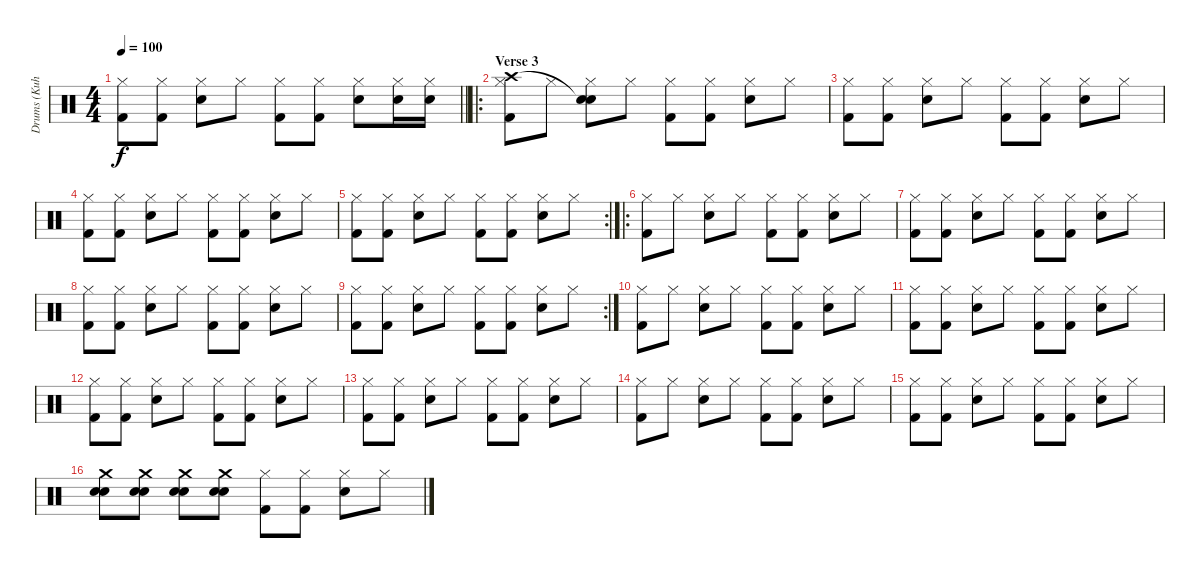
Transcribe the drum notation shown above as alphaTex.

\track ("Drums (Kuhara)" "Drums (Kuh") {instrument percussion}
\staff {score}
\articulation defaults
\ts (4 4)
\tempo 100
\clef neutral
\barLineRight lightlight
\ks c
("Hi-Hat (closed)" "Kick (hit) 2").8{dy f} ("Hi-Hat (closed)" "Kick (hit) 2").8 ("Hi-Hat (closed)" "Electric Snare (hit)").8 "Hi-Hat (closed)".8 ("Hi-Hat (closed)" "Kick (hit) 2").8 ("Hi-Hat (closed)" "Kick (hit) 2").8 ("Hi-Hat (closed)" "Electric Snare (hit)").8 ("Hi-Hat (closed)" "Electric Snare (hit)").16 ("Hi-Hat (closed)" "Electric Snare (hit)").16 |
\ro
\section ("" "Verse 3")
("Hi-Hat (closed)" "Crash high (hit)" "Kick (hit) 2").8{volume 12} "Hi-Hat (closed)".8 ("Hi-Hat (closed)" "Snare (hit)"{t} "Electric Snare (hit)").8 "Hi-Hat (closed)".8 ("Hi-Hat (closed)" "Kick (hit) 2").8 ("Hi-Hat (closed)" "Kick (hit) 2").8 ("Hi-Hat (closed)" "Electric Snare (hit)").8 "Hi-Hat (closed)".8 |
("Hi-Hat (closed)" "Kick (hit) 2").8 ("Hi-Hat (closed)" "Kick (hit) 2").8 ("Hi-Hat (closed)" "Electric Snare (hit)").8 "Hi-Hat (closed)".8 ("Hi-Hat (closed)" "Kick (hit) 2").8 ("Hi-Hat (closed)" "Kick (hit) 2").8 ("Hi-Hat (closed)" "Electric Snare (hit)").8 "Hi-Hat (closed)".8 |
("Hi-Hat (closed)" "Kick (hit) 2").8 ("Hi-Hat (closed)" "Kick (hit) 2").8 ("Hi-Hat (closed)" "Electric Snare (hit)").8 "Hi-Hat (closed)".8 ("Hi-Hat (closed)" "Kick (hit) 2").8 ("Hi-Hat (closed)" "Kick (hit) 2").8 ("Hi-Hat (closed)" "Electric Snare (hit)").8 "Hi-Hat (closed)".8 |
\rc 2
("Hi-Hat (closed)" "Kick (hit) 2").8 ("Hi-Hat (closed)" "Kick (hit) 2").8 ("Hi-Hat (closed)" "Electric Snare (hit)").8 "Hi-Hat (closed)".8 ("Hi-Hat (closed)" "Kick (hit) 2").8 ("Hi-Hat (closed)" "Kick (hit) 2").8 ("Hi-Hat (closed)" "Electric Snare (hit)").8 "Hi-Hat (closed)".8 |
\ro
("Hi-Hat (closed)" "Kick (hit) 2").8 "Hi-Hat (closed)".8 ("Hi-Hat (closed)" "Electric Snare (hit)").8 "Hi-Hat (closed)".8 ("Hi-Hat (closed)" "Kick (hit) 2").8 ("Hi-Hat (closed)" "Kick (hit) 2").8 ("Hi-Hat (closed)" "Electric Snare (hit)").8 "Hi-Hat (closed)".8 |
("Hi-Hat (closed)" "Kick (hit) 2").8 ("Hi-Hat (closed)" "Kick (hit) 2").8 ("Hi-Hat (closed)" "Electric Snare (hit)").8 "Hi-Hat (closed)".8 ("Hi-Hat (closed)" "Kick (hit) 2").8 ("Hi-Hat (closed)" "Kick (hit) 2").8 ("Hi-Hat (closed)" "Electric Snare (hit)").8 "Hi-Hat (closed)".8 |
("Hi-Hat (closed)" "Kick (hit) 2").8 ("Hi-Hat (closed)" "Kick (hit) 2").8 ("Hi-Hat (closed)" "Electric Snare (hit)").8 "Hi-Hat (closed)".8 ("Hi-Hat (closed)" "Kick (hit) 2").8 ("Hi-Hat (closed)" "Kick (hit) 2").8 ("Hi-Hat (closed)" "Electric Snare (hit)").8 "Hi-Hat (closed)".8 |
\rc 2
("Hi-Hat (closed)" "Kick (hit) 2").8 ("Hi-Hat (closed)" "Kick (hit) 2").8 ("Hi-Hat (closed)" "Electric Snare (hit)").8 "Hi-Hat (closed)".8 ("Hi-Hat (closed)" "Kick (hit) 2").8 ("Hi-Hat (closed)" "Kick (hit) 2").8 ("Hi-Hat (closed)" "Electric Snare (hit)").8 "Hi-Hat (closed)".8 |
("Hi-Hat (closed)" "Kick (hit) 2").8 "Hi-Hat (closed)".8 ("Hi-Hat (closed)" "Electric Snare (hit)").8 "Hi-Hat (closed)".8 ("Hi-Hat (closed)" "Kick (hit) 2").8 ("Hi-Hat (closed)" "Kick (hit) 2").8 ("Hi-Hat (closed)" "Electric Snare (hit)").8 "Hi-Hat (closed)".8 |
("Hi-Hat (closed)" "Kick (hit) 2").8 ("Hi-Hat (closed)" "Kick (hit) 2").8 ("Hi-Hat (closed)" "Electric Snare (hit)").8 "Hi-Hat (closed)".8 ("Hi-Hat (closed)" "Kick (hit) 2").8 ("Hi-Hat (closed)" "Kick (hit) 2").8 ("Hi-Hat (closed)" "Electric Snare (hit)").8 "Hi-Hat (closed)".8 |
("Hi-Hat (closed)" "Kick (hit) 2").8 ("Hi-Hat (closed)" "Kick (hit) 2").8 ("Hi-Hat (closed)" "Electric Snare (hit)").8 "Hi-Hat (closed)".8 ("Hi-Hat (closed)" "Kick (hit) 2").8 ("Hi-Hat (closed)" "Kick (hit) 2").8 ("Hi-Hat (closed)" "Electric Snare (hit)").8 "Hi-Hat (closed)".8 |
("Hi-Hat (closed)" "Kick (hit) 2").8 ("Hi-Hat (closed)" "Kick (hit) 2").8 ("Hi-Hat (closed)" "Electric Snare (hit)").8 "Hi-Hat (closed)".8 ("Hi-Hat (closed)" "Kick (hit) 2").8 ("Hi-Hat (closed)" "Kick (hit) 2").8 ("Hi-Hat (closed)" "Electric Snare (hit)").8 "Hi-Hat (closed)".8 |
("Hi-Hat (closed)" "Kick (hit) 2").8 "Hi-Hat (closed)".8 ("Hi-Hat (closed)" "Electric Snare (hit)").8 "Hi-Hat (closed)".8 ("Hi-Hat (closed)" "Kick (hit) 2").8 ("Hi-Hat (closed)" "Kick (hit) 2").8 ("Hi-Hat (closed)" "Electric Snare (hit)").8 "Hi-Hat (closed)".8 |
("Hi-Hat (closed)" "Kick (hit) 2").8 ("Hi-Hat (closed)" "Kick (hit) 2").8 ("Hi-Hat (closed)" "Electric Snare (hit)").8 "Hi-Hat (closed)".8 ("Hi-Hat (closed)" "Kick (hit) 2").8 ("Hi-Hat (closed)" "Kick (hit) 2").8 ("Hi-Hat (closed)" "Electric Snare (hit)").8 "Hi-Hat (closed)".8 |
("Crash medium (hit)" "Electric Snare (hit)" "Electric Snare (hit)").8 ("Crash medium (hit)" "Electric Snare (hit)" "Electric Snare (hit)").8 ("Crash medium (hit)" "Electric Snare (hit)" "Electric Snare (hit)").8 ("Crash medium (hit)" "Electric Snare (hit)" "Electric Snare (hit)").8 ("Hi-Hat (closed)" "Kick (hit) 2").8 ("Hi-Hat (closed)" "Kick (hit) 2").8 ("Hi-Hat (closed)" "Electric Snare (hit)").8 "Hi-Hat (closed)".8
